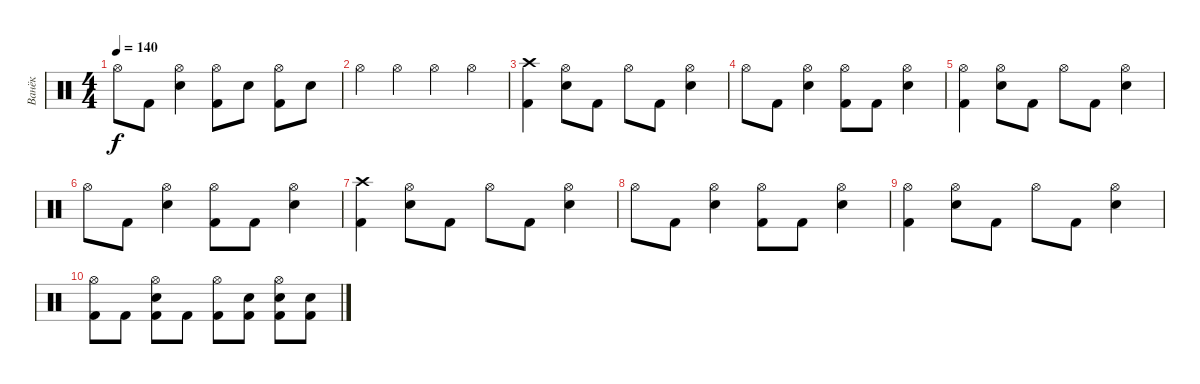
\track ("Ванёк" "Ванёк") {instrument percussion}
\staff {score}
\articulation defaults
\ts (4 4)
\tempo 140
\clef neutral
\ks c "Hi-Hat (open)".8{dy f} "Kick (hit) 2".8
("Hi-Hat (open)" "Electric Snare (hit)").4 ("Hi-Hat (open)" "Kick (hit) 2").8 "Electric Snare (hit)".8 ("Hi-Hat (open)" "Kick (hit) 2").8 "Electric Snare (hit)".8 |
"Hi-Hat (open)".4 "Hi-Hat (open)".4 "Hi-Hat (open)".4 "Hi-Hat (open)".4 |
("Crash high (hit)" "Kick (hit) 2").4 ("Hi-Hat (open)" "Electric Snare (hit)").8 "Kick (hit) 2".8 "Hi-Hat (open)".8 "Kick (hit) 2".8 ("Hi-Hat (open)" "Electric Snare (hit)").4 |
"Hi-Hat (open)".8 "Kick (hit) 2".8 ("Hi-Hat (open)" "Electric Snare (hit)").4 ("Hi-Hat (open)" "Kick (hit) 2").8 "Kick (hit) 2".8 ("Hi-Hat (open)" "Electric Snare (hit)").4 |
("Hi-Hat (open)" "Kick (hit) 2").4 ("Hi-Hat (open)" "Electric Snare (hit)").8 "Kick (hit) 2".8 "Hi-Hat (open)".8 "Kick (hit) 2".8 ("Hi-Hat (open)" "Electric Snare (hit)").4 |
"Hi-Hat (open)".8 "Kick (hit) 2".8 ("Hi-Hat (open)" "Electric Snare (hit)").4 ("Hi-Hat (open)" "Kick (hit) 2").8 "Kick (hit) 2".8 ("Hi-Hat (open)" "Electric Snare (hit)").4 |
("Crash high (hit)" "Kick (hit) 2").4 ("Hi-Hat (open)" "Electric Snare (hit)").8 "Kick (hit) 2".8 "Hi-Hat (open)".8 "Kick (hit) 2".8 ("Hi-Hat (open)" "Electric Snare (hit)").4 |
"Hi-Hat (open)".8 "Kick (hit) 2".8 ("Hi-Hat (open)" "Electric Snare (hit)").4 ("Hi-Hat (open)" "Kick (hit) 2").8 "Kick (hit) 2".8 ("Hi-Hat (open)" "Electric Snare (hit)").4 |
("Hi-Hat (open)" "Kick (hit) 2").4 ("Hi-Hat (open)" "Electric Snare (hit)").8 "Kick (hit) 2".8 "Hi-Hat (open)".8 "Kick (hit) 2".8 ("Hi-Hat (open)" "Electric Snare (hit)").4 |
("Hi-Hat (open)" "Kick (hit) 2").8 "Kick (hit) 2".8 ("Hi-Hat (open)" "Electric Snare (hit)" "Kick (hit) 2").8 "Kick (hit) 2".8 ("Hi-Hat (open)" "Kick (hit) 2").8 ("Electric Snare (hit)" "Kick (hit) 2").8 ("Hi-Hat (open)" "Electric Snare (hit)" "Kick (hit) 2").8 ("Electric Snare (hit)" "Kick (hit) 2").8
